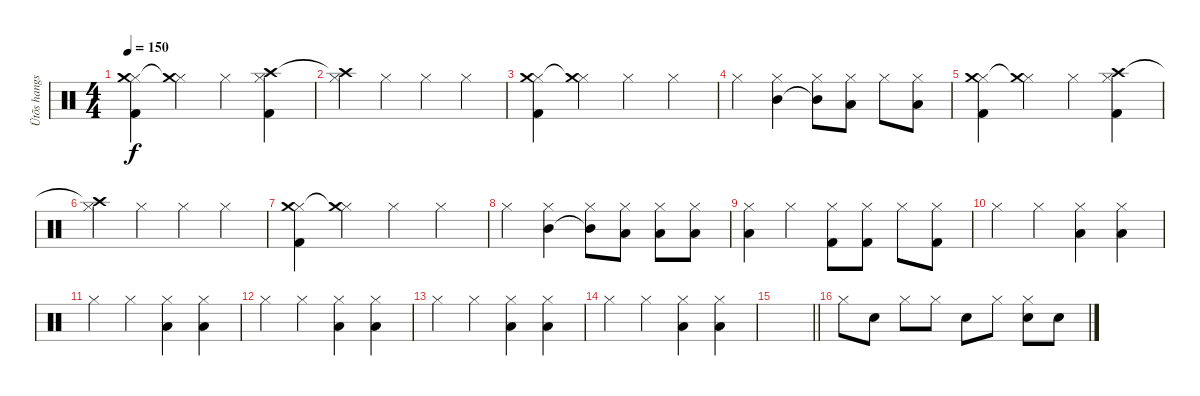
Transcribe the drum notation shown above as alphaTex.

\track ("Ütõs hangszer" "Ütõs hangs") {instrument percussion}
\staff {score}
\articulation defaults
\ts (4 4)
\tempo 150
\clef neutral
\ks c
("Hi-Hat (closed)" "Crash medium (hit)" "Kick (hit) 2").4{dy f} ("Hi-Hat (closed)" "Crash medium (hit)"{t}).4 "Hi-Hat (closed)".4 ("Hi-Hat (closed)" "Crash high (hit)" "Kick (hit) 2").4 |
("Hi-Hat (closed)" "Crash high (hit)"{t}).4 "Hi-Hat (closed)".4 "Hi-Hat (closed)".4 "Hi-Hat (closed)".4 |
("Hi-Hat (closed)" "Crash medium (hit)" "Kick (hit) 2").4 ("Hi-Hat (closed)" "Crash medium (hit)"{t}).4 "Hi-Hat (closed)".4 "Hi-Hat (closed)".4 |
"Hi-Hat (closed)".4 ("Hi-Hat (closed)" "Mid Tom (hit)").4 ("Hi-Hat (closed)" "Mid Tom (hit)"{t}).8 ("Hi-Hat (closed)" "Low Tom (hit)").8 "Hi-Hat (closed)".8 ("Hi-Hat (closed)" "Low Floor Tom (hit)").8 |
("Hi-Hat (closed)" "Crash medium (hit)" "Kick (hit) 2").4 ("Hi-Hat (closed)" "Crash medium (hit)"{t}).4 "Hi-Hat (closed)".4 ("Hi-Hat (closed)" "Crash high (hit)" "Kick (hit) 2").4 |
("Hi-Hat (closed)" "Crash high (hit)"{t}).4 "Hi-Hat (closed)".4 "Hi-Hat (closed)".4 "Hi-Hat (closed)".4 |
("Hi-Hat (closed)" "Crash medium (hit)" "Kick (hit) 2").4 ("Hi-Hat (closed)" "Crash medium (hit)"{t}).4 "Hi-Hat (closed)".4 "Hi-Hat (closed)".4 |
"Hi-Hat (closed)".4 ("Hi-Hat (closed)" "Mid Tom (hit)").4 ("Hi-Hat (closed)" "Mid Tom (hit)"{t}).8 ("Hi-Hat (closed)" "Low Tom (hit)").8 ("Hi-Hat (closed)" "Low Tom (hit)").8 ("Hi-Hat (closed)" "Low Floor Tom (hit)").8 |
("Hi-Hat (closed)" "Low Floor Tom (hit)").4 "Hi-Hat (closed)".4 ("Hi-Hat (closed)" "Kick (hit) 2").8 ("Hi-Hat (closed)" "Kick (hit) 2").8 "Hi-Hat (closed)".8 ("Hi-Hat (closed)" "Kick (hit) 2").8 |
"Hi-Hat (closed)".4 "Hi-Hat (closed)".4 ("Hi-Hat (closed)" "Low Tom (hit)").4 ("Hi-Hat (closed)" "Low Tom (hit)").4 |
"Hi-Hat (closed)".4 "Hi-Hat (closed)".4 ("Hi-Hat (closed)" "Low Floor Tom (hit)").4 ("Hi-Hat (closed)" "Low Floor Tom (hit)").4 |
"Hi-Hat (closed)".4 "Hi-Hat (closed)".4 ("Hi-Hat (closed)" "Low Tom (hit)").4 ("Hi-Hat (closed)" "Low Floor Tom (hit)").4 |
"Hi-Hat (closed)".4 "Hi-Hat (closed)".4 ("Hi-Hat (closed)" "Low Tom (hit)").4 ("Hi-Hat (closed)" "Low Tom (hit)").4 |
"Hi-Hat (closed)".4 "Hi-Hat (closed)".4 ("Hi-Hat (closed)" "Low Floor Tom (hit)").4 ("Hi-Hat (closed)" "Low Floor Tom (hit)").4 |
\barLineRight lightlight
|
"Hi-Hat (closed)".8 "Snare (hit) 2".8 "Hi-Hat (closed)".8 "Hi-Hat (closed)".8 "Snare (hit) 2".8 "Hi-Hat (closed)".8 ("Hi-Hat (closed)" "Snare (hit) 2").8 "Snare (hit) 2".8
